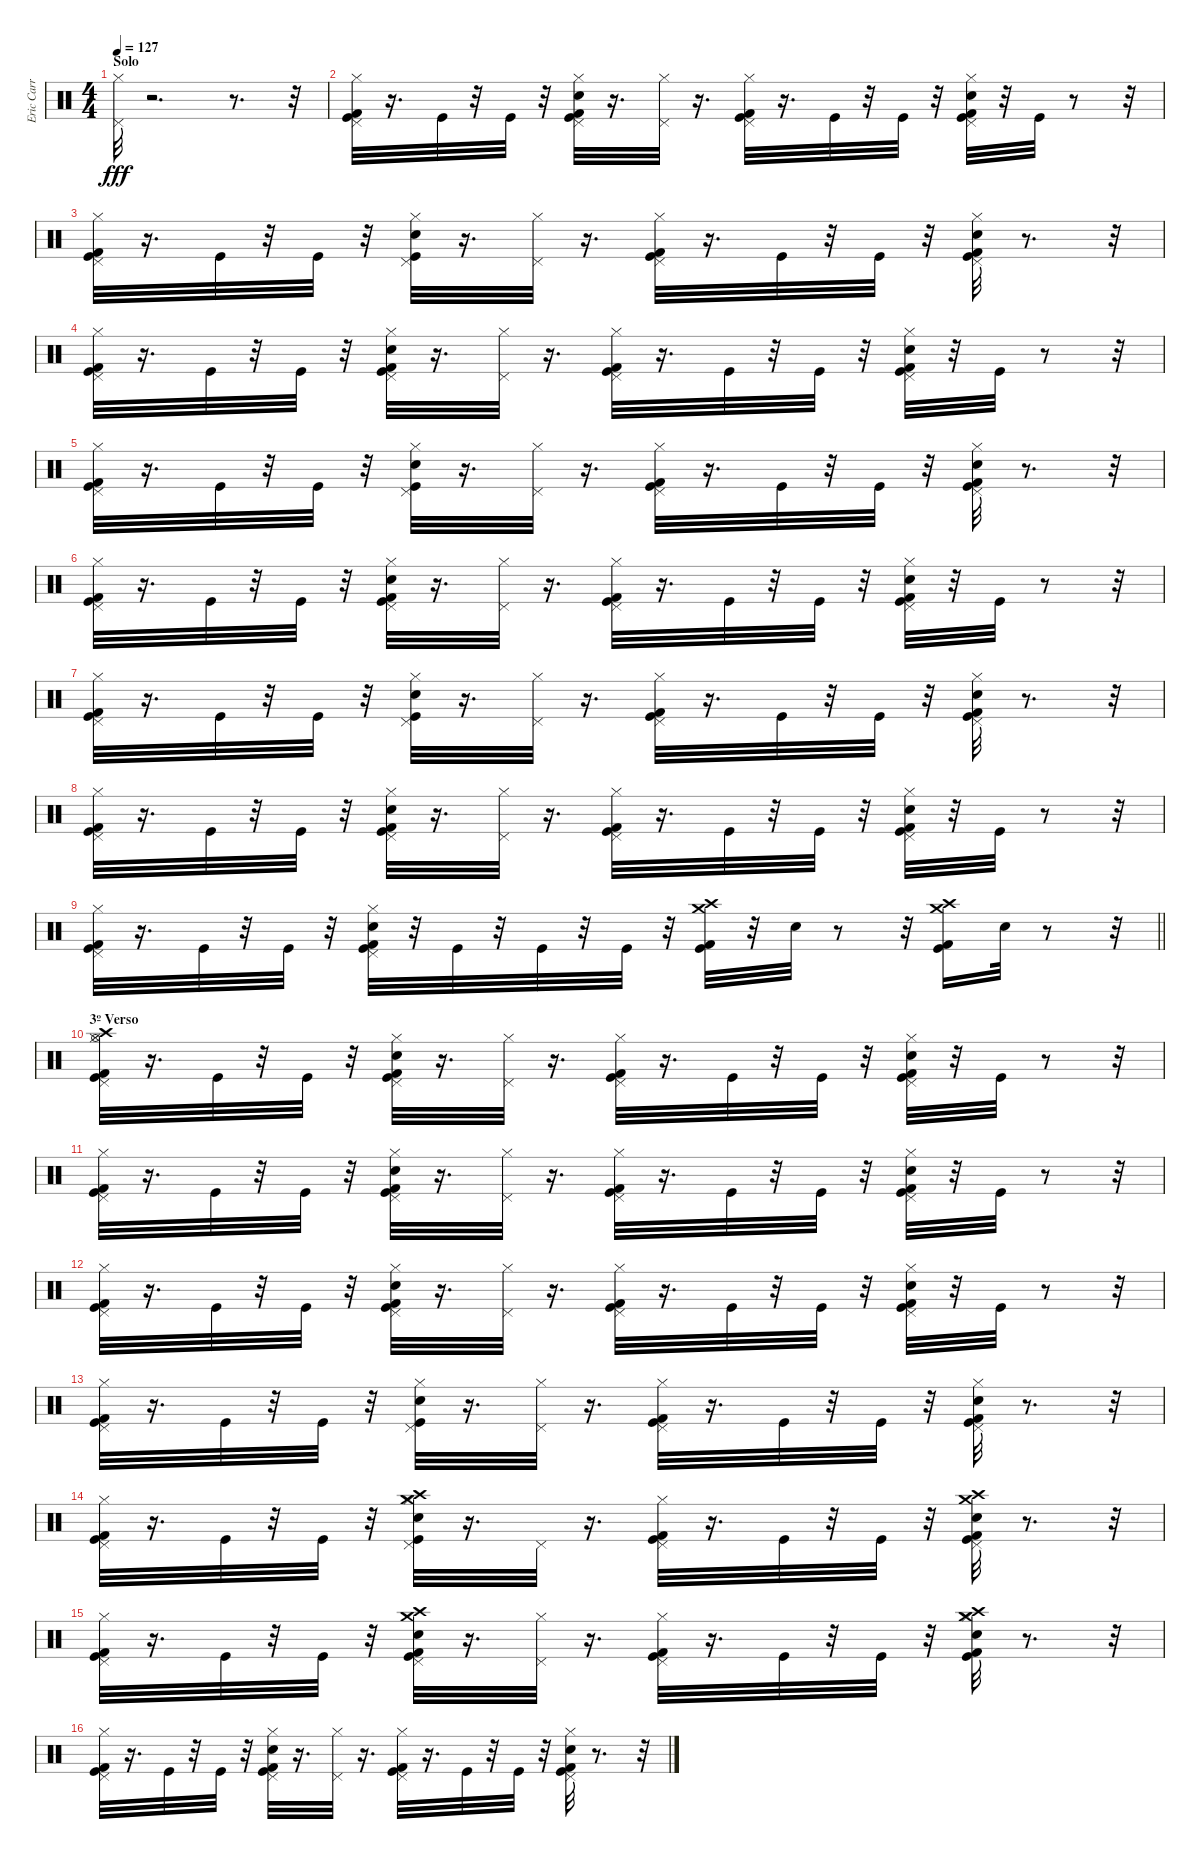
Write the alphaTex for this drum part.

\track ("Eric Carr - Bateria" "Eric Carr ") {instrument percussion}
\staff {score}
\articulation defaults
\ts (4 4)
\section ("" "Solo")
\tempo 127
\clef neutral
\ks c
("Hi-Hat (closed)" "Pedal Hi-Hat (hit)").32{dy fff} r.2{d} r.8{d} r.32 |
("Kick (hit) 2" "Pedal Hi-Hat (hit)" "Kick (hit)" "Hi-Hat (closed)").32 r.16{d} "Kick (hit)".32 r.32 "Kick (hit)".32 r.32 ("Pedal Hi-Hat (hit)" "Snare (hit) 2" "Kick (hit) 2" "Hi-Hat (closed)" "Kick (hit)").32 r.16{d} ("Pedal Hi-Hat (hit)" "Hi-Hat (closed)").32 r.16{d} ("Hi-Hat (closed)" "Pedal Hi-Hat (hit)" "Kick (hit)" "Kick (hit) 2").32 r.16{d} "Kick (hit)".32 r.32 "Kick (hit)".32 r.32 ("Snare (hit) 2" "Kick (hit)" "Kick (hit) 2" "Pedal Hi-Hat (hit)" "Hi-Hat (closed)").32 r.32 "Kick (hit)".32 r.8 r.32 |
("Kick (hit) 2" "Hi-Hat (closed)" "Kick (hit)" "Pedal Hi-Hat (hit)").32 r.16{d} "Kick (hit)".32 r.32 "Kick (hit)".32 r.32 ("Kick (hit)" "Snare (hit) 2" "Pedal Hi-Hat (hit)" "Hi-Hat (closed)").32 r.16{d} ("Pedal Hi-Hat (hit)" "Hi-Hat (closed)").32 r.16{d} ("Kick (hit) 2" "Kick (hit)" "Hi-Hat (closed)" "Pedal Hi-Hat (hit)").32 r.16{d} "Kick (hit)".32 r.32 "Kick (hit)".32 r.32 ("Pedal Hi-Hat (hit)" "Kick (hit) 2" "Kick (hit)" "Hi-Hat (closed)" "Snare (hit) 2").32 r.8{d} r.32 |
("Kick (hit) 2" "Pedal Hi-Hat (hit)" "Kick (hit)" "Hi-Hat (closed)").32 r.16{d} "Kick (hit)".32 r.32 "Kick (hit)".32 r.32 ("Pedal Hi-Hat (hit)" "Snare (hit) 2" "Kick (hit) 2" "Hi-Hat (closed)" "Kick (hit)").32 r.16{d} ("Pedal Hi-Hat (hit)" "Hi-Hat (closed)").32 r.16{d} ("Hi-Hat (closed)" "Pedal Hi-Hat (hit)" "Kick (hit)" "Kick (hit) 2").32 r.16{d} "Kick (hit)".32 r.32 "Kick (hit)".32 r.32 ("Snare (hit) 2" "Kick (hit)" "Kick (hit) 2" "Pedal Hi-Hat (hit)" "Hi-Hat (closed)").32 r.32 "Kick (hit)".32 r.8 r.32 |
("Kick (hit) 2" "Hi-Hat (closed)" "Kick (hit)" "Pedal Hi-Hat (hit)").32 r.16{d} "Kick (hit)".32 r.32 "Kick (hit)".32 r.32 ("Kick (hit)" "Snare (hit) 2" "Pedal Hi-Hat (hit)" "Hi-Hat (closed)").32 r.16{d} ("Pedal Hi-Hat (hit)" "Hi-Hat (closed)").32 r.16{d} ("Kick (hit) 2" "Kick (hit)" "Hi-Hat (closed)" "Pedal Hi-Hat (hit)").32 r.16{d} "Kick (hit)".32 r.32 "Kick (hit)".32 r.32 ("Pedal Hi-Hat (hit)" "Kick (hit) 2" "Kick (hit)" "Hi-Hat (closed)" "Snare (hit) 2").32 r.8{d} r.32 |
("Kick (hit) 2" "Pedal Hi-Hat (hit)" "Kick (hit)" "Hi-Hat (closed)").32 r.16{d} "Kick (hit)".32 r.32 "Kick (hit)".32 r.32 ("Pedal Hi-Hat (hit)" "Snare (hit) 2" "Kick (hit) 2" "Hi-Hat (closed)" "Kick (hit)").32 r.16{d} ("Pedal Hi-Hat (hit)" "Hi-Hat (closed)").32 r.16{d} ("Hi-Hat (closed)" "Pedal Hi-Hat (hit)" "Kick (hit)" "Kick (hit) 2").32 r.16{d} "Kick (hit)".32 r.32 "Kick (hit)".32 r.32 ("Snare (hit) 2" "Kick (hit)" "Kick (hit) 2" "Pedal Hi-Hat (hit)" "Hi-Hat (closed)").32 r.32 "Kick (hit)".32 r.8 r.32 |
("Kick (hit) 2" "Hi-Hat (closed)" "Kick (hit)" "Pedal Hi-Hat (hit)").32 r.16{d} "Kick (hit)".32 r.32 "Kick (hit)".32 r.32 ("Kick (hit)" "Snare (hit) 2" "Pedal Hi-Hat (hit)" "Hi-Hat (closed)").32 r.16{d} ("Pedal Hi-Hat (hit)" "Hi-Hat (closed)").32 r.16{d} ("Kick (hit) 2" "Kick (hit)" "Hi-Hat (closed)" "Pedal Hi-Hat (hit)").32 r.16{d} "Kick (hit)".32 r.32 "Kick (hit)".32 r.32 ("Pedal Hi-Hat (hit)" "Kick (hit) 2" "Kick (hit)" "Hi-Hat (closed)" "Snare (hit) 2").32 r.8{d} r.32 |
("Kick (hit) 2" "Pedal Hi-Hat (hit)" "Kick (hit)" "Hi-Hat (closed)").32 r.16{d} "Kick (hit)".32 r.32 "Kick (hit)".32 r.32 ("Pedal Hi-Hat (hit)" "Snare (hit) 2" "Kick (hit) 2" "Hi-Hat (closed)" "Kick (hit)").32 r.16{d} ("Pedal Hi-Hat (hit)" "Hi-Hat (closed)").32 r.16{d} ("Hi-Hat (closed)" "Pedal Hi-Hat (hit)" "Kick (hit)" "Kick (hit) 2").32 r.16{d} "Kick (hit)".32 r.32 "Kick (hit)".32 r.32 ("Snare (hit) 2" "Kick (hit)" "Kick (hit) 2" "Pedal Hi-Hat (hit)" "Hi-Hat (closed)").32 r.32 "Kick (hit)".32 r.8 r.32 |
\barLineRight lightlight
("Kick (hit) 2" "Kick (hit)" "Pedal Hi-Hat (hit)" "Hi-Hat (closed)").32 r.16{d} "Kick (hit)".32 r.32 "Kick (hit)".32 r.32 ("Kick (hit)" "Pedal Hi-Hat (hit)" "Hi-Hat (closed)" "Kick (hit) 2" "Snare (hit) 2").32 r.32 "Kick (hit)".32 r.32 "Kick (hit)".32 r.32 "Kick (hit)".32 r.32 ("Kick (hit)" "Kick (hit) 2" "Crash medium (hit)" "Crash high (hit)").32 r.32 "Snare (hit) 2".32 r.8 r.32 ("Kick (hit)" "Kick (hit) 2" "Crash medium (hit)" "Crash high (hit)").16 "Snare (hit) 2".32 r.8 r.32 |
\section ("" "3º Verso")
("Hi-Hat (closed)" "Pedal Hi-Hat (hit)" "Hi-Hat (open)" "Kick (hit) 2" "Kick (hit)" "Crash high (hit)").32 r.16{d} "Kick (hit)".32 r.32 "Kick (hit)".32 r.32 ("Hi-Hat (closed)" "Kick (hit) 2" "Kick (hit)" "Snare (hit) 2" "Pedal Hi-Hat (hit)").32 r.16{d} ("Hi-Hat (closed)" "Pedal Hi-Hat (hit)").32 r.16{d} ("Hi-Hat (closed)" "Pedal Hi-Hat (hit)" "Kick (hit) 2" "Kick (hit)").32 r.16{d} "Kick (hit)".32 r.32 "Kick (hit)".32 r.32 ("Hi-Hat (closed)" "Pedal Hi-Hat (hit)" "Snare (hit) 2" "Kick (hit)" "Kick (hit) 2").32 r.32 "Kick (hit)".32 r.8 r.32 |
("Hi-Hat (closed)" "Pedal Hi-Hat (hit)" "Kick (hit) 2" "Kick (hit)").32 r.16{d} "Kick (hit)".32 r.32 "Kick (hit)".32 r.32 ("Hi-Hat (closed)" "Pedal Hi-Hat (hit)" "Snare (hit) 2" "Kick (hit) 2" "Kick (hit)").32 r.16{d} ("Hi-Hat (closed)" "Pedal Hi-Hat (hit)").32 r.16{d} ("Hi-Hat (closed)" "Pedal Hi-Hat (hit)" "Kick (hit)" "Kick (hit) 2").32 r.16{d} "Kick (hit)".32 r.32 "Kick (hit)".32 r.32 ("Hi-Hat (closed)" "Pedal Hi-Hat (hit)" "Kick (hit)" "Snare (hit) 2" "Kick (hit) 2").32 r.32 "Kick (hit)".32 r.8 r.32 |
("Pedal Hi-Hat (hit)" "Hi-Hat (closed)" "Kick (hit) 2" "Kick (hit)").32 r.16{d} "Kick (hit)".32 r.32 "Kick (hit)".32 r.32 ("Hi-Hat (closed)" "Pedal Hi-Hat (hit)" "Kick (hit) 2" "Snare (hit) 2" "Kick (hit)").32 r.16{d} ("Hi-Hat (closed)" "Pedal Hi-Hat (hit)").32 r.16{d} ("Kick (hit) 2" "Kick (hit)" "Hi-Hat (closed)" "Pedal Hi-Hat (hit)").32 r.16{d} "Kick (hit)".32 r.32 "Kick (hit)".32 r.32 ("Snare (hit) 2" "Kick (hit)" "Kick (hit) 2" "Hi-Hat (closed)" "Pedal Hi-Hat (hit)").32 r.32 "Kick (hit)".32 r.8 r.32 |
("Kick (hit) 2" "Kick (hit)" "Hi-Hat (closed)" "Pedal Hi-Hat (hit)").32 r.16{d} "Kick (hit)".32 r.32 "Kick (hit)".32 r.32 ("Kick (hit)" "Snare (hit) 2" "Hi-Hat (closed)" "Pedal Hi-Hat (hit)").32 r.16{d} ("Hi-Hat (closed)" "Pedal Hi-Hat (hit)").32 r.16{d} ("Hi-Hat (closed)" "Pedal Hi-Hat (hit)" "Kick (hit) 2" "Kick (hit)").32 r.16{d} "Kick (hit)".32 r.32 "Kick (hit)".32 r.32 ("Hi-Hat (closed)" "Pedal Hi-Hat (hit)" "Kick (hit)" "Kick (hit) 2" "Snare (hit) 2").32 r.8{d} r.32 |
("Kick (hit) 2" "Kick (hit)" "Hi-Hat (closed)" "Pedal Hi-Hat (hit)").32 r.16{d} "Kick (hit)".32 r.32 "Kick (hit)".32 r.32 ("Crash medium (hit)" "Crash high (hit)" "Snare (hit) 2" "Hi-Hat (closed)" "Pedal Hi-Hat (hit)" "Kick (hit)").32 r.16{d} "Pedal Hi-Hat (hit)".32 r.16{d} ("Hi-Hat (closed)" "Pedal Hi-Hat (hit)" "Kick (hit) 2" "Kick (hit)").32 r.16{d} "Kick (hit)".32 r.32 "Kick (hit)".32 r.32 ("Crash medium (hit)" "Crash high (hit)" "Pedal Hi-Hat (hit)" "Kick (hit)" "Kick (hit) 2" "Snare (hit) 2").32 r.8{d} r.32 |
("Kick (hit)" "Kick (hit) 2" "Hi-Hat (closed)" "Pedal Hi-Hat (hit)").32 r.16{d} "Kick (hit)".32 r.32 "Kick (hit)".32 r.32 ("Crash high (hit)" "Crash medium (hit)" "Pedal Hi-Hat (hit)" "Kick (hit) 2" "Kick (hit)" "Snare (hit) 2").32 r.16{d} ("Pedal Hi-Hat (hit)" "Hi-Hat (closed)").32 r.16{d} ("Kick (hit)" "Kick (hit) 2" "Hi-Hat (closed)" "Pedal Hi-Hat (hit)").32 r.16{d} "Kick (hit)".32 r.32 "Kick (hit)".32 r.32 ("Crash medium (hit)" "Crash high (hit)" "Snare (hit) 2" "Kick (hit) 2" "Kick (hit)" "Hi-Hat (closed)").32 r.8{d} r.32 |
("Kick (hit) 2" "Hi-Hat (closed)" "Pedal Hi-Hat (hit)" "Kick (hit)").32 r.16{d} "Kick (hit)".32 r.32 "Kick (hit)".32 r.32 ("Kick (hit)" "Snare (hit) 2" "Hi-Hat (closed)" "Kick (hit) 2" "Pedal Hi-Hat (hit)").32 r.16{d} ("Hi-Hat (closed)" "Pedal Hi-Hat (hit)").32 r.16{d} ("Kick (hit)" "Pedal Hi-Hat (hit)" "Hi-Hat (closed)" "Kick (hit) 2").32 r.16{d} "Kick (hit)".32 r.32 "Kick (hit)".32 r.32 ("Hi-Hat (closed)" "Snare (hit) 2" "Kick (hit)" "Pedal Hi-Hat (hit)" "Kick (hit) 2").32 r.8{d} r.32
